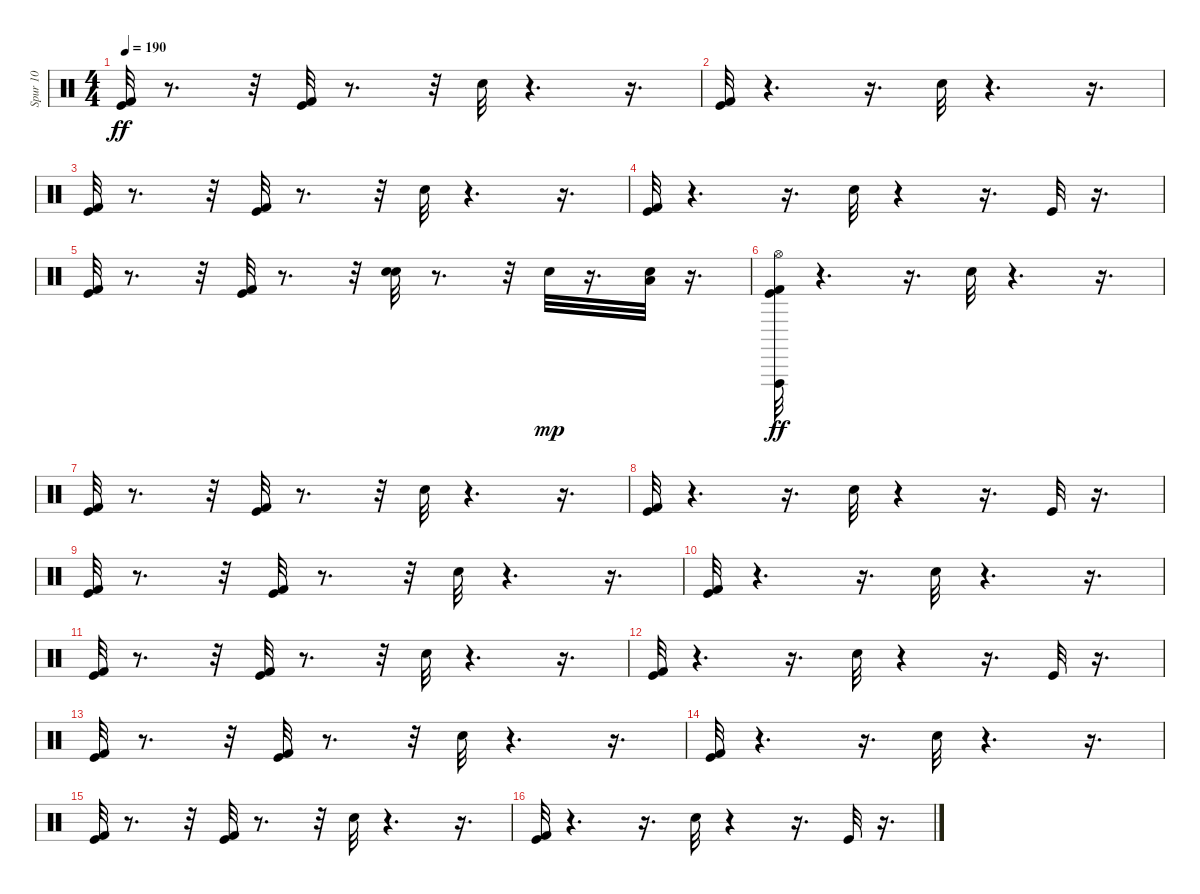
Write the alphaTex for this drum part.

\track ("Spur 10" "Spur 10") {instrument percussion}
\staff {score}
\articulation defaults
\ts (4 4)
\tempo 190
\clef neutral
\ks c
("Kick (hit) 2" "Kick (hit)").32{dy ff} r.8{d} r.32 ("Kick (hit) 2" "Kick (hit)").32 r.8{d} r.32 "Hand Clap (hit)".32 r.4{d} r.16{d} |
("Kick (hit) 2" "Kick (hit)").32 r.4{d} r.16{d} "Hand Clap (hit)".32 r.4{d} r.16{d} |
("Kick (hit) 2" "Kick (hit)").32 r.8{d} r.32 ("Kick (hit) 2" "Kick (hit)").32 r.8{d} r.32 "Hand Clap (hit)".32 r.4{d} r.16{d} |
("Kick (hit) 2" "Kick (hit)").32 r.4{d} r.16{d} "Hand Clap (hit)".32 r.4 r.16{d} "Kick (hit)".32 r.16{d} |
("Kick (hit) 2" "Kick (hit)").32 r.8{d} r.32 ("Kick (hit) 2" "Kick (hit)").32 r.8{d} r.32 ("Electric Snare (hit)" "Hand Clap (hit)").32 r.8{d} r.32 "Snare (hit) 2".32{dy mp} r.16{d} ("Low Tom (hit)" "Snare (hit) 2").32 r.16{d} |
("Vibraslap (hit)" "Hi-Hat (open)" "Kick (hit) 2" "Kick (hit)").32{dy ff} r.4{d} r.16{d} "Hand Clap (hit)".32 r.4{d} r.16{d} |
("Kick (hit) 2" "Kick (hit)").32 r.8{d} r.32 ("Kick (hit) 2" "Kick (hit)").32 r.8{d} r.32 "Hand Clap (hit)".32 r.4{d} r.16{d} |
("Kick (hit) 2" "Kick (hit)").32 r.4{d} r.16{d} "Hand Clap (hit)".32 r.4 r.16{d} "Kick (hit)".32 r.16{d} |
("Kick (hit) 2" "Kick (hit)").32 r.8{d} r.32 ("Kick (hit) 2" "Kick (hit)").32 r.8{d} r.32 "Hand Clap (hit)".32 r.4{d} r.16{d} |
("Kick (hit) 2" "Kick (hit)").32 r.4{d} r.16{d} "Hand Clap (hit)".32 r.4{d} r.16{d} |
("Kick (hit) 2" "Kick (hit)").32 r.8{d} r.32 ("Kick (hit) 2" "Kick (hit)").32 r.8{d} r.32 "Hand Clap (hit)".32 r.4{d} r.16{d} |
("Kick (hit) 2" "Kick (hit)").32 r.4{d} r.16{d} "Hand Clap (hit)".32 r.4 r.16{d} "Kick (hit)".32 r.16{d} |
("Kick (hit) 2" "Kick (hit)").32 r.8{d} r.32 ("Kick (hit) 2" "Kick (hit)").32 r.8{d} r.32 "Hand Clap (hit)".32 r.4{d} r.16{d} |
("Kick (hit) 2" "Kick (hit)").32 r.4{d} r.16{d} "Hand Clap (hit)".32 r.4{d} r.16{d} |
("Kick (hit) 2" "Kick (hit)").32 r.8{d} r.32 ("Kick (hit) 2" "Kick (hit)").32 r.8{d} r.32 "Hand Clap (hit)".32 r.4{d} r.16{d} |
("Kick (hit) 2" "Kick (hit)").32 r.4{d} r.16{d} "Hand Clap (hit)".32 r.4 r.16{d} "Kick (hit)".32 r.16{d}
